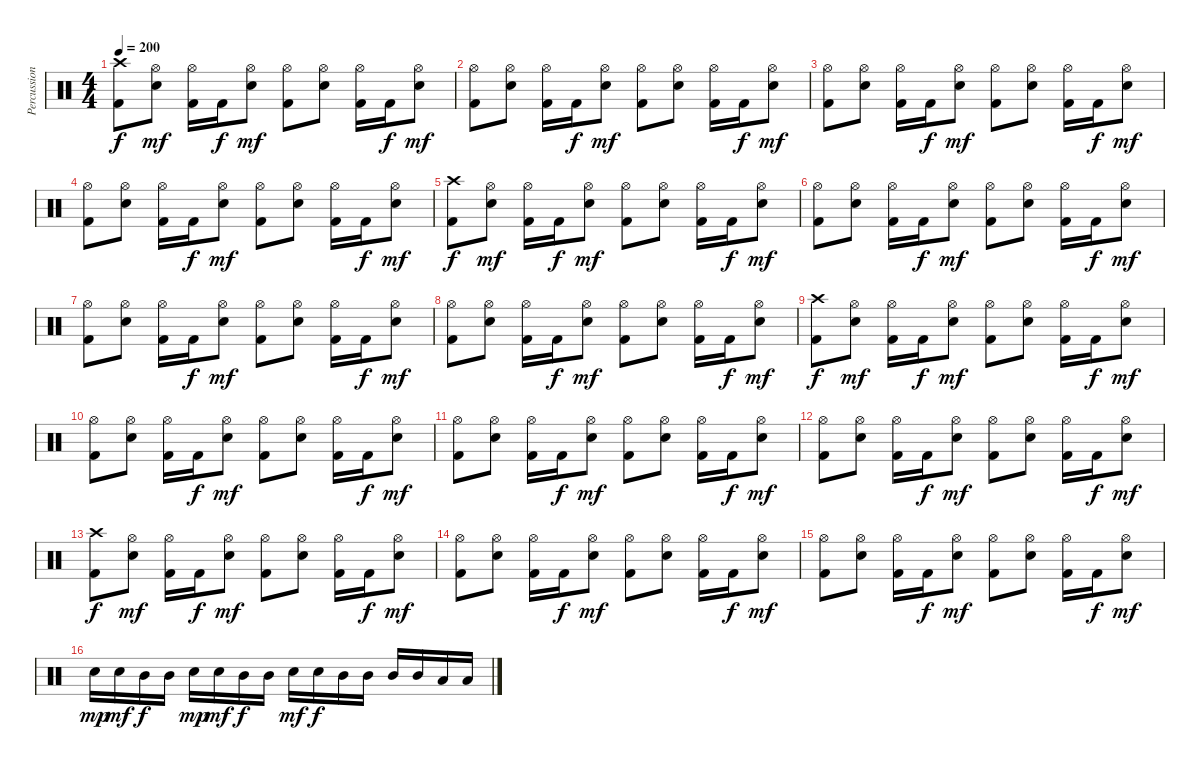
\track ("Percussions" "Percussion") {instrument percussion}
\staff {score}
\articulation defaults
\ts (4 4)
\tempo 200
\clef neutral
\ks c
("Crash high (hit)" "Kick (hit) 2").8{dy f} ("Hi-Hat (open)" "Snare (hit) 2").8{dy mf} ("Hi-Hat (open)" "Kick (hit) 2").16 "Kick (hit) 2".16{dy f} ("Hi-Hat (open)" "Snare (hit) 2").8{dy mf} ("Hi-Hat (open)" "Kick (hit) 2").8 ("Hi-Hat (open)" "Snare (hit) 2").8 ("Hi-Hat (open)" "Kick (hit) 2").16 "Kick (hit) 2".16{dy f} ("Hi-Hat (open)" "Snare (hit) 2").8{dy mf} |
("Hi-Hat (open)" "Kick (hit) 2").8 ("Hi-Hat (open)" "Snare (hit) 2").8 ("Hi-Hat (open)" "Kick (hit) 2").16 "Kick (hit) 2".16{dy f} ("Hi-Hat (open)" "Snare (hit) 2").8{dy mf} ("Hi-Hat (open)" "Kick (hit) 2").8 ("Hi-Hat (open)" "Snare (hit) 2").8 ("Hi-Hat (open)" "Kick (hit) 2").16 "Kick (hit) 2".16{dy f} ("Hi-Hat (open)" "Snare (hit) 2").8{dy mf} |
("Hi-Hat (open)" "Kick (hit) 2").8 ("Hi-Hat (open)" "Snare (hit) 2").8 ("Hi-Hat (open)" "Kick (hit) 2").16 "Kick (hit) 2".16{dy f} ("Hi-Hat (open)" "Snare (hit) 2").8{dy mf} ("Hi-Hat (open)" "Kick (hit) 2").8 ("Hi-Hat (open)" "Snare (hit) 2").8 ("Hi-Hat (open)" "Kick (hit) 2").16 "Kick (hit) 2".16{dy f} ("Hi-Hat (open)" "Snare (hit) 2").8{dy mf} |
("Hi-Hat (open)" "Kick (hit) 2").8 ("Hi-Hat (open)" "Snare (hit) 2").8 ("Hi-Hat (open)" "Kick (hit) 2").16 "Kick (hit) 2".16{dy f} ("Hi-Hat (open)" "Snare (hit) 2").8{dy mf} ("Hi-Hat (open)" "Kick (hit) 2").8 ("Hi-Hat (open)" "Snare (hit) 2").8 ("Hi-Hat (open)" "Kick (hit) 2").16 "Kick (hit) 2".16{dy f} ("Hi-Hat (open)" "Snare (hit) 2").8{dy mf} |
("Crash high (hit)" "Kick (hit) 2").8{dy f} ("Hi-Hat (open)" "Snare (hit) 2").8{dy mf} ("Hi-Hat (open)" "Kick (hit) 2").16 "Kick (hit) 2".16{dy f} ("Hi-Hat (open)" "Snare (hit) 2").8{dy mf} ("Hi-Hat (open)" "Kick (hit) 2").8 ("Hi-Hat (open)" "Snare (hit) 2").8 ("Hi-Hat (open)" "Kick (hit) 2").16 "Kick (hit) 2".16{dy f} ("Hi-Hat (open)" "Snare (hit) 2").8{dy mf} |
("Hi-Hat (open)" "Kick (hit) 2").8 ("Hi-Hat (open)" "Snare (hit) 2").8 ("Hi-Hat (open)" "Kick (hit) 2").16 "Kick (hit) 2".16{dy f} ("Hi-Hat (open)" "Snare (hit) 2").8{dy mf} ("Hi-Hat (open)" "Kick (hit) 2").8 ("Hi-Hat (open)" "Snare (hit) 2").8 ("Hi-Hat (open)" "Kick (hit) 2").16 "Kick (hit) 2".16{dy f} ("Hi-Hat (open)" "Snare (hit) 2").8{dy mf} |
("Hi-Hat (open)" "Kick (hit) 2").8 ("Hi-Hat (open)" "Snare (hit) 2").8 ("Hi-Hat (open)" "Kick (hit) 2").16 "Kick (hit) 2".16{dy f} ("Hi-Hat (open)" "Snare (hit) 2").8{dy mf} ("Hi-Hat (open)" "Kick (hit) 2").8 ("Hi-Hat (open)" "Snare (hit) 2").8 ("Hi-Hat (open)" "Kick (hit) 2").16 "Kick (hit) 2".16{dy f} ("Hi-Hat (open)" "Snare (hit) 2").8{dy mf} |
("Hi-Hat (open)" "Kick (hit) 2").8 ("Hi-Hat (open)" "Snare (hit) 2").8 ("Hi-Hat (open)" "Kick (hit) 2").16 "Kick (hit) 2".16{dy f} ("Hi-Hat (open)" "Snare (hit) 2").8{dy mf} ("Hi-Hat (open)" "Kick (hit) 2").8 ("Hi-Hat (open)" "Snare (hit) 2").8 ("Hi-Hat (open)" "Kick (hit) 2").16 "Kick (hit) 2".16{dy f} ("Hi-Hat (open)" "Snare (hit) 2").8{dy mf} |
("Crash high (hit)" "Kick (hit) 2").8{dy f} ("Hi-Hat (open)" "Snare (hit) 2").8{dy mf} ("Hi-Hat (open)" "Kick (hit) 2").16 "Kick (hit) 2".16{dy f} ("Hi-Hat (open)" "Snare (hit) 2").8{dy mf} ("Hi-Hat (open)" "Kick (hit) 2").8 ("Hi-Hat (open)" "Snare (hit) 2").8 ("Hi-Hat (open)" "Kick (hit) 2").16 "Kick (hit) 2".16{dy f} ("Hi-Hat (open)" "Snare (hit) 2").8{dy mf} |
("Hi-Hat (open)" "Kick (hit) 2").8 ("Hi-Hat (open)" "Snare (hit) 2").8 ("Hi-Hat (open)" "Kick (hit) 2").16 "Kick (hit) 2".16{dy f} ("Hi-Hat (open)" "Snare (hit) 2").8{dy mf} ("Hi-Hat (open)" "Kick (hit) 2").8 ("Hi-Hat (open)" "Snare (hit) 2").8 ("Hi-Hat (open)" "Kick (hit) 2").16 "Kick (hit) 2".16{dy f} ("Hi-Hat (open)" "Snare (hit) 2").8{dy mf} |
("Hi-Hat (open)" "Kick (hit) 2").8 ("Hi-Hat (open)" "Snare (hit) 2").8 ("Hi-Hat (open)" "Kick (hit) 2").16 "Kick (hit) 2".16{dy f} ("Hi-Hat (open)" "Snare (hit) 2").8{dy mf} ("Hi-Hat (open)" "Kick (hit) 2").8 ("Hi-Hat (open)" "Snare (hit) 2").8 ("Hi-Hat (open)" "Kick (hit) 2").16 "Kick (hit) 2".16{dy f} ("Hi-Hat (open)" "Snare (hit) 2").8{dy mf} |
("Hi-Hat (open)" "Kick (hit) 2").8 ("Hi-Hat (open)" "Snare (hit) 2").8 ("Hi-Hat (open)" "Kick (hit) 2").16 "Kick (hit) 2".16{dy f} ("Hi-Hat (open)" "Snare (hit) 2").8{dy mf} ("Hi-Hat (open)" "Kick (hit) 2").8 ("Hi-Hat (open)" "Snare (hit) 2").8 ("Hi-Hat (open)" "Kick (hit) 2").16 "Kick (hit) 2".16{dy f} ("Hi-Hat (open)" "Snare (hit) 2").8{dy mf} |
("Crash high (hit)" "Kick (hit) 2").8{dy f} ("Hi-Hat (open)" "Snare (hit) 2").8{dy mf} ("Hi-Hat (open)" "Kick (hit) 2").16 "Kick (hit) 2".16{dy f} ("Hi-Hat (open)" "Snare (hit) 2").8{dy mf} ("Hi-Hat (open)" "Kick (hit) 2").8 ("Hi-Hat (open)" "Snare (hit) 2").8 ("Hi-Hat (open)" "Kick (hit) 2").16 "Kick (hit) 2".16{dy f} ("Hi-Hat (open)" "Snare (hit) 2").8{dy mf} |
("Hi-Hat (open)" "Kick (hit) 2").8 ("Hi-Hat (open)" "Snare (hit) 2").8 ("Hi-Hat (open)" "Kick (hit) 2").16 "Kick (hit) 2".16{dy f} ("Hi-Hat (open)" "Snare (hit) 2").8{dy mf} ("Hi-Hat (open)" "Kick (hit) 2").8 ("Hi-Hat (open)" "Snare (hit) 2").8 ("Hi-Hat (open)" "Kick (hit) 2").16 "Kick (hit) 2".16{dy f} ("Hi-Hat (open)" "Snare (hit) 2").8{dy mf} |
("Hi-Hat (open)" "Kick (hit) 2").8 ("Hi-Hat (open)" "Snare (hit) 2").8 ("Hi-Hat (open)" "Kick (hit) 2").16 "Kick (hit) 2".16{dy f} ("Hi-Hat (open)" "Snare (hit) 2").8{dy mf} ("Hi-Hat (open)" "Kick (hit) 2").8 ("Hi-Hat (open)" "Snare (hit) 2").8 ("Hi-Hat (open)" "Kick (hit) 2").16 "Kick (hit) 2".16{dy f} ("Hi-Hat (open)" "Snare (hit) 2").8{dy mf} |
"Snare (hit) 2".16{dy mp} "Snare (hit) 2".16{dy mf} "Mid Tom (hit)".16{dy f} "Mid Tom (hit)".16 "Snare (hit) 2".16{dy mp} "Snare (hit) 2".16{dy mf} "Mid Tom (hit)".16{dy f} "Mid Tom (hit)".16 "Snare (hit) 2".16{dy mf} "Snare (hit) 2".16{dy f} "Mid Tom (hit)".16 "Mid Tom (hit)".16 "Mid Tom (hit)".16 "Mid Tom (hit)".16 "Low Tom (hit)".16 "Low Tom (hit)".16
